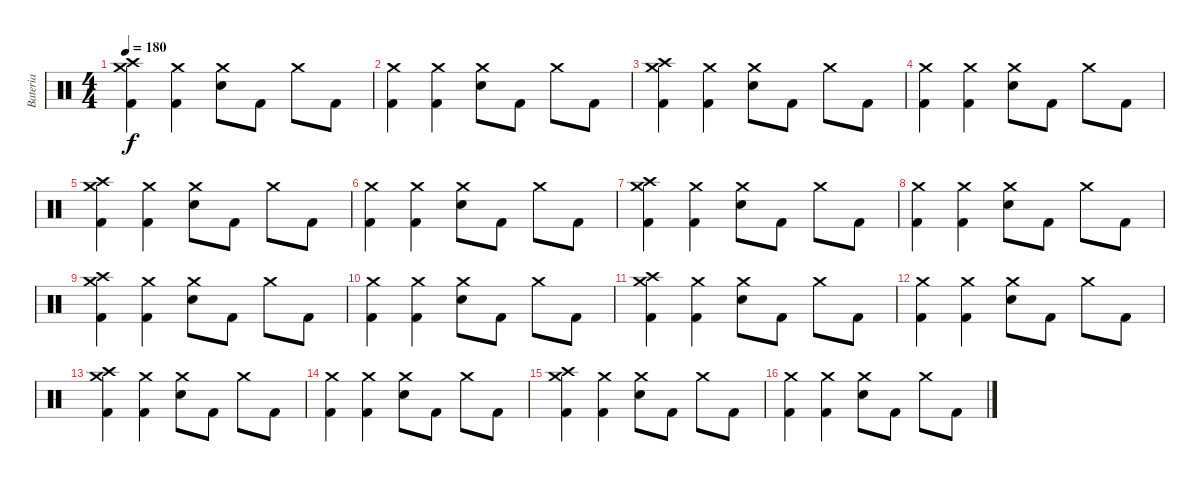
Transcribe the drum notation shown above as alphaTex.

\track ("Bateria" "Bateria") {instrument percussion}
\staff {score}
\articulation defaults
\ts (4 4)
\tempo 180
\clef neutral
\ks c
("Crash medium (hit)" "Crash high (hit)" "Kick (hit) 2").4{dy f} ("Crash medium (hit)" "Kick (hit) 2").4 ("Crash medium (hit)" "Electric Snare (hit)").8 "Kick (hit) 2".8 "Crash medium (hit)".8 "Kick (hit) 2".8 |
("Crash medium (hit)" "Kick (hit) 2").4 ("Crash medium (hit)" "Kick (hit) 2").4 ("Crash medium (hit)" "Electric Snare (hit)").8 "Kick (hit) 2".8 "Crash medium (hit)".8 "Kick (hit) 2".8 |
("Crash medium (hit)" "Crash high (hit)" "Kick (hit) 2").4 ("Crash medium (hit)" "Kick (hit) 2").4 ("Crash medium (hit)" "Electric Snare (hit)").8 "Kick (hit) 2".8 "Crash medium (hit)".8 "Kick (hit) 2".8 |
("Crash medium (hit)" "Kick (hit) 2").4 ("Crash medium (hit)" "Kick (hit) 2").4 ("Crash medium (hit)" "Electric Snare (hit)").8 "Kick (hit) 2".8 "Crash medium (hit)".8 "Kick (hit) 2".8 |
("Crash medium (hit)" "Crash high (hit)" "Kick (hit) 2").4 ("Crash medium (hit)" "Kick (hit) 2").4 ("Crash medium (hit)" "Electric Snare (hit)").8 "Kick (hit) 2".8 "Crash medium (hit)".8 "Kick (hit) 2".8 |
("Crash medium (hit)" "Kick (hit) 2").4 ("Crash medium (hit)" "Kick (hit) 2").4 ("Crash medium (hit)" "Electric Snare (hit)").8 "Kick (hit) 2".8 "Crash medium (hit)".8 "Kick (hit) 2".8 |
("Crash medium (hit)" "Crash high (hit)" "Kick (hit) 2").4 ("Crash medium (hit)" "Kick (hit) 2").4 ("Crash medium (hit)" "Electric Snare (hit)").8 "Kick (hit) 2".8 "Crash medium (hit)".8 "Kick (hit) 2".8 |
("Crash medium (hit)" "Kick (hit) 2").4 ("Crash medium (hit)" "Kick (hit) 2").4 ("Crash medium (hit)" "Electric Snare (hit)").8 "Kick (hit) 2".8 "Crash medium (hit)".8 "Kick (hit) 2".8 |
("Crash medium (hit)" "Crash high (hit)" "Kick (hit) 2").4 ("Crash medium (hit)" "Kick (hit) 2").4 ("Crash medium (hit)" "Electric Snare (hit)").8 "Kick (hit) 2".8 "Crash medium (hit)".8 "Kick (hit) 2".8 |
("Crash medium (hit)" "Kick (hit) 2").4 ("Crash medium (hit)" "Kick (hit) 2").4 ("Crash medium (hit)" "Electric Snare (hit)").8 "Kick (hit) 2".8 "Crash medium (hit)".8 "Kick (hit) 2".8 |
("Crash medium (hit)" "Crash high (hit)" "Kick (hit) 2").4 ("Crash medium (hit)" "Kick (hit) 2").4 ("Crash medium (hit)" "Electric Snare (hit)").8 "Kick (hit) 2".8 "Crash medium (hit)".8 "Kick (hit) 2".8 |
("Crash medium (hit)" "Kick (hit) 2").4 ("Crash medium (hit)" "Kick (hit) 2").4 ("Crash medium (hit)" "Electric Snare (hit)").8 "Kick (hit) 2".8 "Crash medium (hit)".8 "Kick (hit) 2".8 |
("Crash medium (hit)" "Crash high (hit)" "Kick (hit) 2").4 ("Crash medium (hit)" "Kick (hit) 2").4 ("Crash medium (hit)" "Electric Snare (hit)").8 "Kick (hit) 2".8 "Crash medium (hit)".8 "Kick (hit) 2".8 |
("Crash medium (hit)" "Kick (hit) 2").4 ("Crash medium (hit)" "Kick (hit) 2").4 ("Crash medium (hit)" "Electric Snare (hit)").8 "Kick (hit) 2".8 "Crash medium (hit)".8 "Kick (hit) 2".8 |
("Crash medium (hit)" "Crash high (hit)" "Kick (hit) 2").4 ("Crash medium (hit)" "Kick (hit) 2").4 ("Crash medium (hit)" "Electric Snare (hit)").8 "Kick (hit) 2".8 "Crash medium (hit)".8 "Kick (hit) 2".8 |
("Crash medium (hit)" "Kick (hit) 2").4 ("Crash medium (hit)" "Kick (hit) 2").4 ("Crash medium (hit)" "Electric Snare (hit)").8 "Kick (hit) 2".8 "Crash medium (hit)".8 "Kick (hit) 2".8
